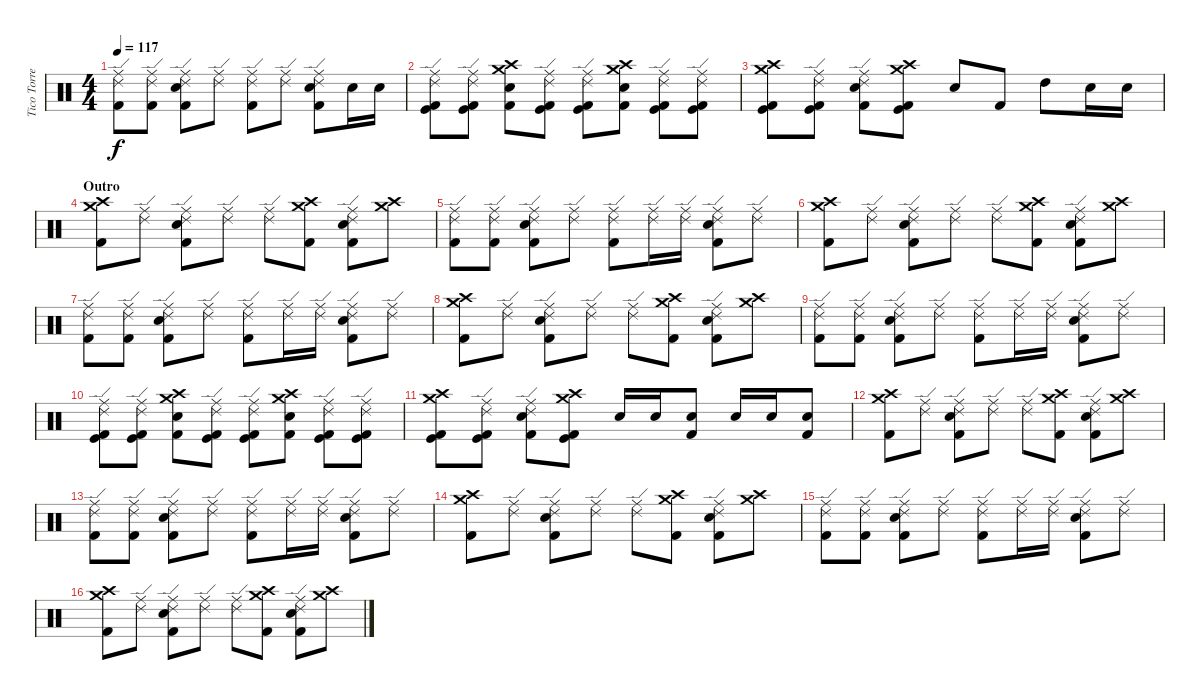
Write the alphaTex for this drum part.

\track ("Tico Torres" "Tico Torre") {instrument percussion}
\staff {score}
\articulation defaults
\ts (4 4)
\tempo 117
\clef neutral
\ks c
("Ride (middle)" "Ride (edge) 2" "Kick (hit) 2").8{dy f} ("Ride (middle)" "Ride (edge) 2" "Kick (hit) 2").8 ("Ride (middle)" "Ride (edge) 2" "Electric Snare (hit)" "Kick (hit) 2").8 ("Ride (middle)" "Ride (edge) 2").8 ("Ride (middle)" "Ride (edge) 2" "Kick (hit) 2").8 ("Ride (middle)" "Ride (edge) 2").8 ("Ride (middle)" "Ride (edge) 2" "Electric Snare (hit)" "Kick (hit) 2").8 "Electric Snare (hit)".16 "Electric Snare (hit)".16 |
("Ride (middle)" "Ride (edge) 2" "Kick (hit)" "Kick (hit) 2").8 ("Ride (middle)" "Ride (edge) 2" "Kick (hit)" "Kick (hit) 2").8 ("Crash high (hit)" "Crash medium (hit)" "Electric Snare (hit)" "Kick (hit) 2").8 ("Ride (middle)" "Ride (edge) 2" "Kick (hit)" "Kick (hit) 2").8 ("Ride (middle)" "Ride (edge) 2" "Kick (hit)" "Kick (hit) 2").8 ("Crash high (hit)" "Crash medium (hit)" "Electric Snare (hit)" "Kick (hit) 2").8 ("Ride (middle)" "Ride (edge) 2" "Kick (hit)" "Kick (hit) 2").8 ("Ride (middle)" "Ride (edge) 2" "Kick (hit)" "Kick (hit) 2").8 |
("Crash high (hit)" "Crash medium (hit)" "Kick (hit)" "Kick (hit) 2").8 ("Ride (middle)" "Ride (edge) 2" "Kick (hit)" "Kick (hit) 2").8 ("Ride (middle)" "Ride (edge) 2" "Electric Snare (hit)" "Kick (hit) 2").8 ("Crash high (hit)" "Crash medium (hit)" "Kick (hit)" "Kick (hit) 2").8 "Electric Snare (hit)".8 "Kick (hit) 2".8 "High Tom (hit)".8 "Electric Snare (hit)".16 "Electric Snare (hit)".16 |
\section ("" "Outro")
("Crash high (hit)" "Crash medium (hit)" "Kick (hit) 2").8 ("Ride (middle)" "Ride (edge) 2").8 ("Ride (middle)" "Ride (edge) 2" "Electric Snare (hit)" "Kick (hit) 2").8 ("Ride (middle)" "Ride (edge) 2").8 ("Ride (middle)" "Ride (edge) 2").8 ("Crash high (hit)" "Crash medium (hit)" "Kick (hit) 2").8 ("Ride (middle)" "Ride (edge) 2" "Electric Snare (hit)" "Kick (hit) 2").8 ("Crash high (hit)" "Crash medium (hit)").8 |
("Ride (middle)" "Ride (edge) 2" "Kick (hit) 2").8 ("Ride (middle)" "Ride (edge) 2" "Kick (hit) 2").8 ("Ride (middle)" "Ride (edge) 2" "Electric Snare (hit)" "Kick (hit) 2").8 ("Ride (middle)" "Ride (edge) 2").8 ("Ride (middle)" "Ride (edge) 2" "Kick (hit) 2").8 ("Ride (middle)" "Ride (edge) 2").16 ("Ride (middle)" "Ride (edge) 2").16 ("Ride (middle)" "Ride (edge) 2" "Electric Snare (hit)" "Kick (hit) 2").8 ("Ride (middle)" "Ride (edge) 2").8 |
("Crash high (hit)" "Crash medium (hit)" "Kick (hit) 2").8 ("Ride (middle)" "Ride (edge) 2").8 ("Ride (middle)" "Ride (edge) 2" "Electric Snare (hit)" "Kick (hit) 2").8 ("Ride (middle)" "Ride (edge) 2").8 ("Ride (middle)" "Ride (edge) 2").8 ("Crash high (hit)" "Crash medium (hit)" "Kick (hit) 2").8 ("Ride (middle)" "Ride (edge) 2" "Electric Snare (hit)" "Kick (hit) 2").8 ("Crash high (hit)" "Crash medium (hit)").8 |
("Ride (middle)" "Ride (edge) 2" "Kick (hit) 2").8 ("Ride (middle)" "Ride (edge) 2" "Kick (hit) 2").8 ("Ride (middle)" "Ride (edge) 2" "Electric Snare (hit)" "Kick (hit) 2").8 ("Ride (middle)" "Ride (edge) 2").8 ("Ride (middle)" "Ride (edge) 2" "Kick (hit) 2").8 ("Ride (middle)" "Ride (edge) 2").16 ("Ride (middle)" "Ride (edge) 2").16 ("Ride (middle)" "Ride (edge) 2" "Electric Snare (hit)" "Kick (hit) 2").8 ("Ride (middle)" "Ride (edge) 2").8 |
("Crash high (hit)" "Crash medium (hit)" "Kick (hit) 2").8 ("Ride (middle)" "Ride (edge) 2").8 ("Ride (middle)" "Ride (edge) 2" "Electric Snare (hit)" "Kick (hit) 2").8 ("Ride (middle)" "Ride (edge) 2").8 ("Ride (middle)" "Ride (edge) 2").8 ("Crash high (hit)" "Crash medium (hit)" "Kick (hit) 2").8 ("Ride (middle)" "Ride (edge) 2" "Electric Snare (hit)" "Kick (hit) 2").8 ("Crash high (hit)" "Crash medium (hit)").8 |
("Ride (middle)" "Ride (edge) 2" "Kick (hit) 2").8 ("Ride (middle)" "Ride (edge) 2" "Kick (hit) 2").8 ("Ride (middle)" "Ride (edge) 2" "Electric Snare (hit)" "Kick (hit) 2").8 ("Ride (middle)" "Ride (edge) 2").8 ("Ride (middle)" "Ride (edge) 2" "Kick (hit) 2").8 ("Ride (middle)" "Ride (edge) 2").16 ("Ride (middle)" "Ride (edge) 2").16 ("Ride (middle)" "Ride (edge) 2" "Electric Snare (hit)" "Kick (hit) 2").8 ("Ride (middle)" "Ride (edge) 2").8 |
("Ride (middle)" "Ride (edge) 2" "Kick (hit)" "Kick (hit) 2").8 ("Ride (middle)" "Ride (edge) 2" "Kick (hit)" "Kick (hit) 2").8 ("Crash high (hit)" "Crash medium (hit)" "Electric Snare (hit)" "Kick (hit) 2").8 ("Ride (middle)" "Ride (edge) 2" "Kick (hit)" "Kick (hit) 2").8 ("Ride (middle)" "Ride (edge) 2" "Kick (hit)" "Kick (hit) 2").8 ("Crash high (hit)" "Crash medium (hit)" "Electric Snare (hit)" "Kick (hit) 2").8 ("Ride (middle)" "Ride (edge) 2" "Kick (hit)" "Kick (hit) 2").8 ("Ride (middle)" "Ride (edge) 2" "Kick (hit)" "Kick (hit) 2").8 |
("Crash high (hit)" "Crash medium (hit)" "Kick (hit)" "Kick (hit) 2").8 ("Ride (middle)" "Ride (edge) 2" "Kick (hit)" "Kick (hit) 2").8 ("Ride (middle)" "Ride (edge) 2" "Electric Snare (hit)" "Kick (hit) 2").8 ("Crash high (hit)" "Crash medium (hit)" "Kick (hit)" "Kick (hit) 2").8 "Electric Snare (hit)".16 "Electric Snare (hit)".16 ("Electric Snare (hit)" "Kick (hit) 2").8 "Electric Snare (hit)".16 "Electric Snare (hit)".16 ("Electric Snare (hit)" "Kick (hit) 2").8 |
("Crash high (hit)" "Crash medium (hit)" "Kick (hit) 2").8 ("Ride (middle)" "Ride (edge) 2").8 ("Ride (middle)" "Ride (edge) 2" "Electric Snare (hit)" "Kick (hit) 2").8 ("Ride (middle)" "Ride (edge) 2").8 ("Ride (middle)" "Ride (edge) 2").8 ("Crash high (hit)" "Crash medium (hit)" "Kick (hit) 2").8 ("Ride (middle)" "Ride (edge) 2" "Electric Snare (hit)" "Kick (hit) 2").8 ("Crash high (hit)" "Crash medium (hit)").8 |
("Ride (middle)" "Ride (edge) 2" "Kick (hit) 2").8 ("Ride (middle)" "Ride (edge) 2" "Kick (hit) 2").8 ("Ride (middle)" "Ride (edge) 2" "Electric Snare (hit)" "Kick (hit) 2").8 ("Ride (middle)" "Ride (edge) 2").8 ("Ride (middle)" "Ride (edge) 2" "Kick (hit) 2").8 ("Ride (middle)" "Ride (edge) 2").16 ("Ride (middle)" "Ride (edge) 2").16 ("Ride (middle)" "Ride (edge) 2" "Electric Snare (hit)" "Kick (hit) 2").8 ("Ride (middle)" "Ride (edge) 2").8 |
("Crash high (hit)" "Crash medium (hit)" "Kick (hit) 2").8{volume 0} ("Ride (middle)" "Ride (edge) 2").8 ("Ride (middle)" "Ride (edge) 2" "Electric Snare (hit)" "Kick (hit) 2").8 ("Ride (middle)" "Ride (edge) 2").8 ("Ride (middle)" "Ride (edge) 2").8 ("Crash high (hit)" "Crash medium (hit)" "Kick (hit) 2").8 ("Ride (middle)" "Ride (edge) 2" "Electric Snare (hit)" "Kick (hit) 2").8 ("Crash high (hit)" "Crash medium (hit)").8 |
("Ride (middle)" "Ride (edge) 2" "Kick (hit) 2").8 ("Ride (middle)" "Ride (edge) 2" "Kick (hit) 2").8 ("Ride (middle)" "Ride (edge) 2" "Electric Snare (hit)" "Kick (hit) 2").8 ("Ride (middle)" "Ride (edge) 2").8 ("Ride (middle)" "Ride (edge) 2" "Kick (hit) 2").8 ("Ride (middle)" "Ride (edge) 2").16 ("Ride (middle)" "Ride (edge) 2").16 ("Ride (middle)" "Ride (edge) 2" "Electric Snare (hit)" "Kick (hit) 2").8 ("Ride (middle)" "Ride (edge) 2").8 |
("Crash high (hit)" "Crash medium (hit)" "Kick (hit) 2").8 ("Ride (middle)" "Ride (edge) 2").8 ("Ride (middle)" "Ride (edge) 2" "Electric Snare (hit)" "Kick (hit) 2").8 ("Ride (middle)" "Ride (edge) 2").8 ("Ride (middle)" "Ride (edge) 2").8 ("Crash high (hit)" "Crash medium (hit)" "Kick (hit) 2").8 ("Ride (middle)" "Ride (edge) 2" "Electric Snare (hit)" "Kick (hit) 2").8 ("Crash high (hit)" "Crash medium (hit)").8
